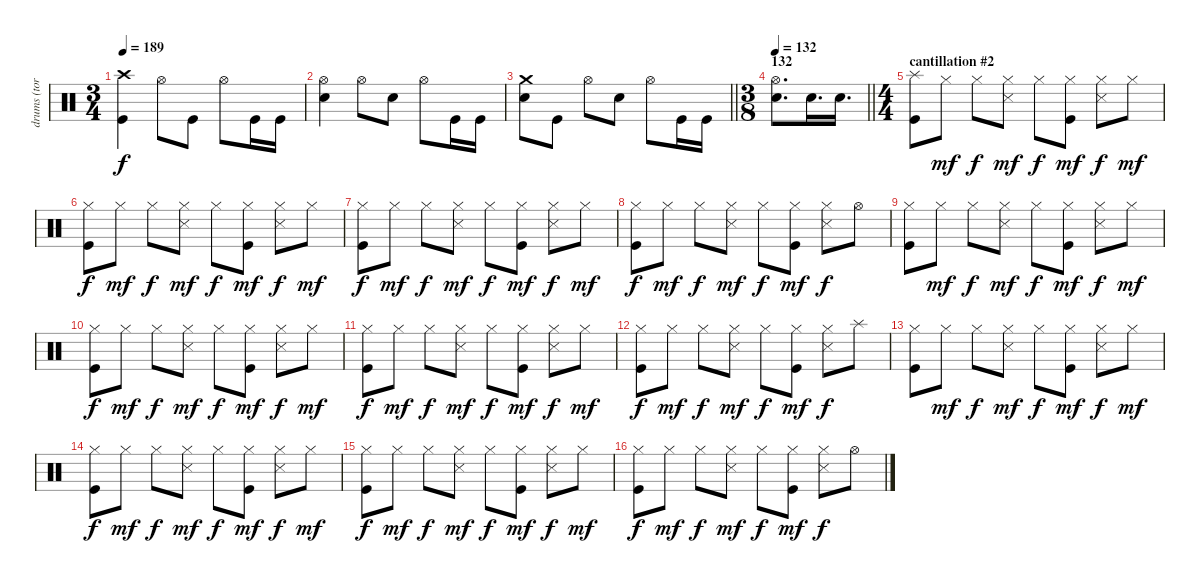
\track ("drums (tora)" "drums (tor") {instrument percussion}
\staff {score}
\articulation defaults
\ts (3 4)
\tempo 189
\clef neutral
\ks c
("Crash high (hit)" "Kick (hit)").4{dy f} "Hi-Hat (open)".8 "Kick (hit)".8 "Hi-Hat (open)".8 "Kick (hit)".16 "Kick (hit)".16 |
("Hi-Hat (open)" "Snare (hit) 2").4 "Hi-Hat (open)".8 "Snare (hit) 2".8 "Hi-Hat (open)".8 "Kick (hit)".16 "Kick (hit)".16 |
\barLineRight lightlight
("Crash medium (hit)" "Snare (hit) 2").8 "Kick (hit)".8 "Hi-Hat (open)".8 "Snare (hit) 2".8 "Hi-Hat (open)".8 "Kick (hit)".16 "Kick (hit)".16 |
\ts (3 8)
\section ("" "132")
\tempo 134
\tempo 132
\barLineRight lightlight
("Hi-Hat (open)" "Snare (hit) 2").8{d} "Snare (hit) 2".16{d} "Snare (hit) 2".16{d} |
\ts (4 4)
\section ("" "cantillation #2")
("Splash (hit)" "Kick (hit)").8 "Hi-Hat (closed)".8{dy mf} "Hi-Hat (closed)".8{dy f} ("Hi-Hat (closed)" "Snare (side stick) 3").8{dy mf} "Hi-Hat (closed)".8{dy f} ("Hi-Hat (closed)" "Kick (hit)").8{dy mf} ("Hi-Hat (closed)" "Snare (side stick) 3").8{dy f} "Hi-Hat (closed)".8{dy mf} |
("Hi-Hat (closed)" "Kick (hit)").8{dy f} "Hi-Hat (closed)".8{dy mf} "Hi-Hat (closed)".8{dy f} ("Hi-Hat (closed)" "Snare (side stick) 3").8{dy mf} "Hi-Hat (closed)".8{dy f} ("Hi-Hat (closed)" "Kick (hit)").8{dy mf} ("Hi-Hat (closed)" "Snare (side stick) 3").8{dy f} "Hi-Hat (closed)".8{dy mf} |
("Hi-Hat (closed)" "Kick (hit)").8{dy f} "Hi-Hat (closed)".8{dy mf} "Hi-Hat (closed)".8{dy f} ("Hi-Hat (closed)" "Snare (side stick) 3").8{dy mf} "Hi-Hat (closed)".8{dy f} ("Hi-Hat (closed)" "Kick (hit)").8{dy mf} ("Hi-Hat (closed)" "Snare (side stick) 3").8{dy f} "Hi-Hat (closed)".8{dy mf} |
("Hi-Hat (closed)" "Kick (hit)").8{dy f} "Hi-Hat (closed)".8{dy mf} "Hi-Hat (closed)".8{dy f} ("Hi-Hat (closed)" "Snare (side stick) 3").8{dy mf} "Hi-Hat (closed)".8{dy f} ("Hi-Hat (closed)" "Kick (hit)").8{dy mf} ("Hi-Hat (closed)" "Snare (side stick) 3").8{dy f} "Hi-Hat (open)".8 |
("Hi-Hat (closed)" "Kick (hit)").8 "Hi-Hat (closed)".8{dy mf} "Hi-Hat (closed)".8{dy f} ("Hi-Hat (closed)" "Snare (side stick) 3").8{dy mf} "Hi-Hat (closed)".8{dy f} ("Hi-Hat (closed)" "Kick (hit)").8{dy mf} ("Hi-Hat (closed)" "Snare (side stick) 3").8{dy f} "Hi-Hat (closed)".8{dy mf} |
("Hi-Hat (closed)" "Kick (hit)").8{dy f} "Hi-Hat (closed)".8{dy mf} "Hi-Hat (closed)".8{dy f} ("Hi-Hat (closed)" "Snare (side stick) 3").8{dy mf} "Hi-Hat (closed)".8{dy f} ("Hi-Hat (closed)" "Kick (hit)").8{dy mf} ("Hi-Hat (closed)" "Snare (side stick) 3").8{dy f} "Hi-Hat (closed)".8{dy mf} |
("Hi-Hat (closed)" "Kick (hit)").8{dy f} "Hi-Hat (closed)".8{dy mf} "Hi-Hat (closed)".8{dy f} ("Hi-Hat (closed)" "Snare (side stick) 3").8{dy mf} "Hi-Hat (closed)".8{dy f} ("Hi-Hat (closed)" "Kick (hit)").8{dy mf} ("Hi-Hat (closed)" "Snare (side stick) 3").8{dy f} "Hi-Hat (closed)".8{dy mf} |
("Hi-Hat (closed)" "Kick (hit)").8{dy f} "Hi-Hat (closed)".8{dy mf} "Hi-Hat (closed)".8{dy f} ("Hi-Hat (closed)" "Snare (side stick) 3").8{dy mf} "Hi-Hat (closed)".8{dy f} ("Hi-Hat (closed)" "Kick (hit)").8{dy mf} ("Hi-Hat (closed)" "Snare (side stick) 3").8{dy f} "Splash (hit)".8 |
("Hi-Hat (closed)" "Kick (hit)").8 "Hi-Hat (closed)".8{dy mf} "Hi-Hat (closed)".8{dy f} ("Hi-Hat (closed)" "Snare (side stick) 3").8{dy mf} "Hi-Hat (closed)".8{dy f} ("Hi-Hat (closed)" "Kick (hit)").8{dy mf} ("Hi-Hat (closed)" "Snare (side stick) 3").8{dy f} "Hi-Hat (closed)".8{dy mf} |
("Hi-Hat (closed)" "Kick (hit)").8{dy f} "Hi-Hat (closed)".8{dy mf} "Hi-Hat (closed)".8{dy f} ("Hi-Hat (closed)" "Snare (side stick) 3").8{dy mf} "Hi-Hat (closed)".8{dy f} ("Hi-Hat (closed)" "Kick (hit)").8{dy mf} ("Hi-Hat (closed)" "Snare (side stick) 3").8{dy f} "Hi-Hat (closed)".8{dy mf} |
("Hi-Hat (closed)" "Kick (hit)").8{dy f} "Hi-Hat (closed)".8{dy mf} "Hi-Hat (closed)".8{dy f} ("Hi-Hat (closed)" "Snare (side stick) 3").8{dy mf} "Hi-Hat (closed)".8{dy f} ("Hi-Hat (closed)" "Kick (hit)").8{dy mf} ("Hi-Hat (closed)" "Snare (side stick) 3").8{dy f} "Hi-Hat (closed)".8{dy mf} |
("Hi-Hat (closed)" "Kick (hit)").8{dy f} "Hi-Hat (closed)".8{dy mf} "Hi-Hat (closed)".8{dy f} ("Hi-Hat (closed)" "Snare (side stick) 3").8{dy mf} "Hi-Hat (closed)".8{dy f} ("Hi-Hat (closed)" "Kick (hit)").8{dy mf} ("Hi-Hat (closed)" "Snare (side stick) 3").8{dy f} "Hi-Hat (open)".8
